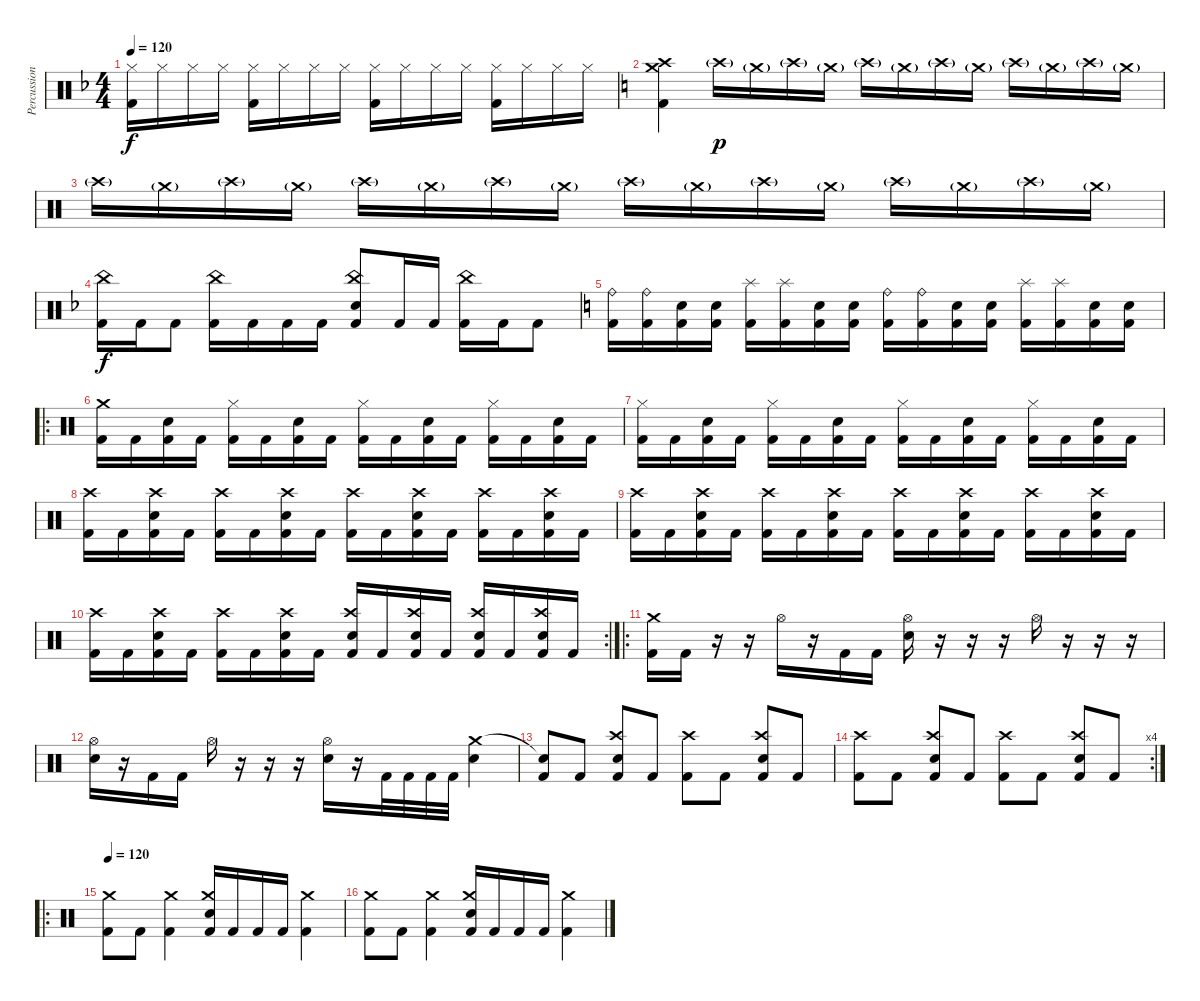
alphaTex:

\track ("Percussions" "Percussion") {instrument percussion}
\staff {score}
\articulation defaults
\ts (4 4)
\tempo 120
\clef neutral
\ks f
("Hi-Hat (closed)" "Kick (hit) 2").16{dy f} "Hi-Hat (closed)".16 "Hi-Hat (closed)".16 "Hi-Hat (closed)".16 ("Hi-Hat (closed)" "Kick (hit) 2").16 "Hi-Hat (closed)".16 "Hi-Hat (closed)".16 "Hi-Hat (closed)".16 ("Hi-Hat (closed)" "Kick (hit) 2").16 "Hi-Hat (closed)".16 "Hi-Hat (closed)".16 "Hi-Hat (closed)".16 ("Hi-Hat (closed)" "Kick (hit) 2").16 "Hi-Hat (closed)".16 "Hi-Hat (closed)".16 "Hi-Hat (closed)".16 |
\ks c
("Crash medium (hit)" "Crash high (hit)" "Kick (hit) 2").4 "Crash high (hit)"{g}.16{dy p} "Crash medium (hit)"{g}.16 "Crash high (hit)"{g}.16 "Crash medium (hit)"{g}.16 "Crash high (hit)"{g}.16 "Crash medium (hit)"{g}.16 "Crash high (hit)"{g}.16 "Crash medium (hit)"{g}.16 "Crash high (hit)"{g}.16 "Crash medium (hit)"{g}.16 "Crash high (hit)"{g}.16 "Crash medium (hit)"{g}.16 |
"Crash high (hit)"{g}.16 "Crash medium (hit)"{g}.16 "Crash high (hit)"{g}.16 "Crash medium (hit)"{g}.16 "Crash high (hit)"{g}.16 "Crash medium (hit)"{g}.16 "Crash high (hit)"{g}.16 "Crash medium (hit)"{g}.16 "Crash high (hit)"{g}.16 "Crash medium (hit)"{g}.16 "Crash high (hit)"{g}.16 "Crash medium (hit)"{g}.16 "Crash high (hit)"{g}.16 "Crash medium (hit)"{g}.16 "Crash high (hit)"{g}.16 "Crash medium (hit)"{g}.16 |
\ks f
("China (hit)" "Kick (hit) 2").16{dy f} "Kick (hit) 2".16 "Kick (hit) 2".8 ("China (hit)" "Kick (hit) 2").16 "Kick (hit) 2".16 "Kick (hit) 2".16 "Kick (hit) 2".16 ("China (hit)" "Electric Snare (hit)" "Kick (hit) 2").8 "Kick (hit) 2".16 "Kick (hit) 2".16 ("China (hit)" "Kick (hit) 2").16 "Kick (hit) 2".16 "Kick (hit) 2".8 |
\ks c
("Ride (bell)" "Kick (hit) 2").16 ("Ride (bell)" "Kick (hit) 2").16 ("Electric Snare (hit)" "Kick (hit) 2").16 ("Electric Snare (hit)" "Kick (hit) 2").16 ("Splash (hit)" "Kick (hit) 2").16 ("Splash (hit)" "Kick (hit) 2").16 ("Electric Snare (hit)" "Kick (hit) 2").16 ("Electric Snare (hit)" "Kick (hit) 2").16 ("Ride (bell)" "Kick (hit) 2").16 ("Ride (bell)" "Kick (hit) 2").16 ("Electric Snare (hit)" "Kick (hit) 2").16 ("Electric Snare (hit)" "Kick (hit) 2").16 ("Splash (hit)" "Kick (hit) 2").16 ("Splash (hit)" "Kick (hit) 2").16 ("Electric Snare (hit)" "Kick (hit) 2").16 ("Electric Snare (hit)" "Kick (hit) 2").16 |
\ro
("Crash medium (hit)" "Kick (hit) 2").16 "Kick (hit) 2".16 ("Electric Snare (hit)" "Kick (hit) 2").16 "Kick (hit) 2".16 ("Hi-Hat (closed)" "Kick (hit) 2").16 "Kick (hit) 2".16 ("Electric Snare (hit)" "Kick (hit) 2").16 "Kick (hit) 2".16 ("Hi-Hat (closed)" "Kick (hit) 2").16 "Kick (hit) 2".16 ("Electric Snare (hit)" "Kick (hit) 2").16 "Kick (hit) 2".16 ("Hi-Hat (closed)" "Kick (hit) 2").16 "Kick (hit) 2".16 ("Electric Snare (hit)" "Kick (hit) 2").16 "Kick (hit) 2".16 |
("Hi-Hat (closed)" "Kick (hit) 2").16 "Kick (hit) 2".16 ("Electric Snare (hit)" "Kick (hit) 2").16 "Kick (hit) 2".16 ("Hi-Hat (closed)" "Kick (hit) 2").16 "Kick (hit) 2".16 ("Electric Snare (hit)" "Kick (hit) 2").16 "Kick (hit) 2".16 ("Hi-Hat (closed)" "Kick (hit) 2").16 "Kick (hit) 2".16 ("Electric Snare (hit)" "Kick (hit) 2").16 "Kick (hit) 2".16 ("Hi-Hat (closed)" "Kick (hit) 2").16 "Kick (hit) 2".16 ("Electric Snare (hit)" "Kick (hit) 2").16 "Kick (hit) 2".16 |
("Crash high (hit)" "Kick (hit) 2").16 "Kick (hit) 2".16 ("Crash high (hit)" "Electric Snare (hit)" "Kick (hit) 2").16 "Kick (hit) 2".16 ("Crash high (hit)" "Kick (hit) 2").16 "Kick (hit) 2".16 ("Crash high (hit)" "Electric Snare (hit)" "Kick (hit) 2").16 "Kick (hit) 2".16 ("Crash high (hit)" "Kick (hit) 2").16 "Kick (hit) 2".16 ("Crash high (hit)" "Electric Snare (hit)" "Kick (hit) 2").16 "Kick (hit) 2".16 ("Crash high (hit)" "Kick (hit) 2").16 "Kick (hit) 2".16 ("Crash high (hit)" "Electric Snare (hit)" "Kick (hit) 2").16 "Kick (hit) 2".16 |
("Crash high (hit)" "Kick (hit) 2").16 "Kick (hit) 2".16 ("Crash high (hit)" "Electric Snare (hit)" "Kick (hit) 2").16 "Kick (hit) 2".16 ("Crash high (hit)" "Kick (hit) 2").16 "Kick (hit) 2".16 ("Crash high (hit)" "Electric Snare (hit)" "Kick (hit) 2").16 "Kick (hit) 2".16 ("Crash high (hit)" "Kick (hit) 2").16 "Kick (hit) 2".16 ("Crash high (hit)" "Electric Snare (hit)" "Kick (hit) 2").16 "Kick (hit) 2".16 ("Crash high (hit)" "Kick (hit) 2").16 "Kick (hit) 2".16 ("Crash high (hit)" "Electric Snare (hit)" "Kick (hit) 2").16 "Kick (hit) 2".16 |
\rc 2
("Crash high (hit)" "Kick (hit) 2").16 "Kick (hit) 2".16 ("Crash high (hit)" "Electric Snare (hit)" "Kick (hit) 2").16 "Kick (hit) 2".16 ("Crash high (hit)" "Kick (hit) 2").16 "Kick (hit) 2".16 ("Crash high (hit)" "Electric Snare (hit)" "Kick (hit) 2").16 "Kick (hit) 2".16 ("Crash high (hit)" "Electric Snare (hit)" "Kick (hit) 2").16 "Kick (hit) 2".16 ("Crash high (hit)" "Electric Snare (hit)" "Kick (hit) 2").16 "Kick (hit) 2".16 ("Crash high (hit)" "Electric Snare (hit)" "Kick (hit) 2").16 "Kick (hit) 2".16 ("Crash high (hit)" "Electric Snare (hit)" "Kick (hit) 2").16 "Kick (hit) 2".16 |
\ro
("Crash medium (hit)" "Kick (hit) 2").16 "Kick (hit) 2".16 r.16 r.16 "Hi-Hat (open)".16 r.16 "Kick (hit) 2".16 "Kick (hit) 2".16 ("Hi-Hat (open)" "Electric Snare (hit)").16 r.16 r.16 r.16 "Hi-Hat (open)".16 r.16 r.16 r.16 |
("Hi-Hat (open)" "Electric Snare (hit)").16 r.16 "Kick (hit) 2".16 "Kick (hit) 2".16 "Hi-Hat (open)".16 r.16 r.16 r.16 ("Hi-Hat (open)" "Electric Snare (hit)").16 r.16 "Kick (hit) 2".32 "Kick (hit) 2".32 "Kick (hit) 2".32 "Kick (hit) 2".32 ("Crash medium (hit)" "Electric Snare (hit)").4 |
("Snare (hit)"{t} "Kick (hit) 2").8 "Kick (hit) 2".8 ("Crash high (hit)" "Snare (hit) 2" "Kick (hit) 2").8 "Kick (hit) 2".8 ("Crash high (hit)" "Kick (hit) 2").8 "Kick (hit) 2".8 ("Crash high (hit)" "Snare (hit) 2" "Kick (hit) 2").8 "Kick (hit) 2".8 |
\rc 4
("Crash high (hit)" "Kick (hit) 2").8 "Kick (hit) 2".8 ("Crash high (hit)" "Snare (hit) 2" "Kick (hit) 2").8 "Kick (hit) 2".8 ("Crash high (hit)" "Kick (hit) 2").8 "Kick (hit) 2".8 ("Crash high (hit)" "Snare (hit) 2" "Kick (hit) 2").8 "Kick (hit) 2".8 |
\ro
\tempo 120
("Crash medium (hit)" "Kick (hit) 2").8 "Kick (hit) 2".8 ("Crash medium (hit)" "Kick (hit) 2").4 ("Crash medium (hit)" "Electric Snare (hit)" "Kick (hit) 2").16 "Kick (hit) 2".16 "Kick (hit) 2".16 "Kick (hit) 2".16 ("Crash medium (hit)" "Kick (hit) 2").4 |
("Crash medium (hit)" "Kick (hit) 2").8 "Kick (hit) 2".8 ("Crash medium (hit)" "Kick (hit) 2").4 ("Crash medium (hit)" "Electric Snare (hit)" "Kick (hit) 2").16 "Kick (hit) 2".16 "Kick (hit) 2".16 "Kick (hit) 2".16 ("Crash medium (hit)" "Kick (hit) 2").4
